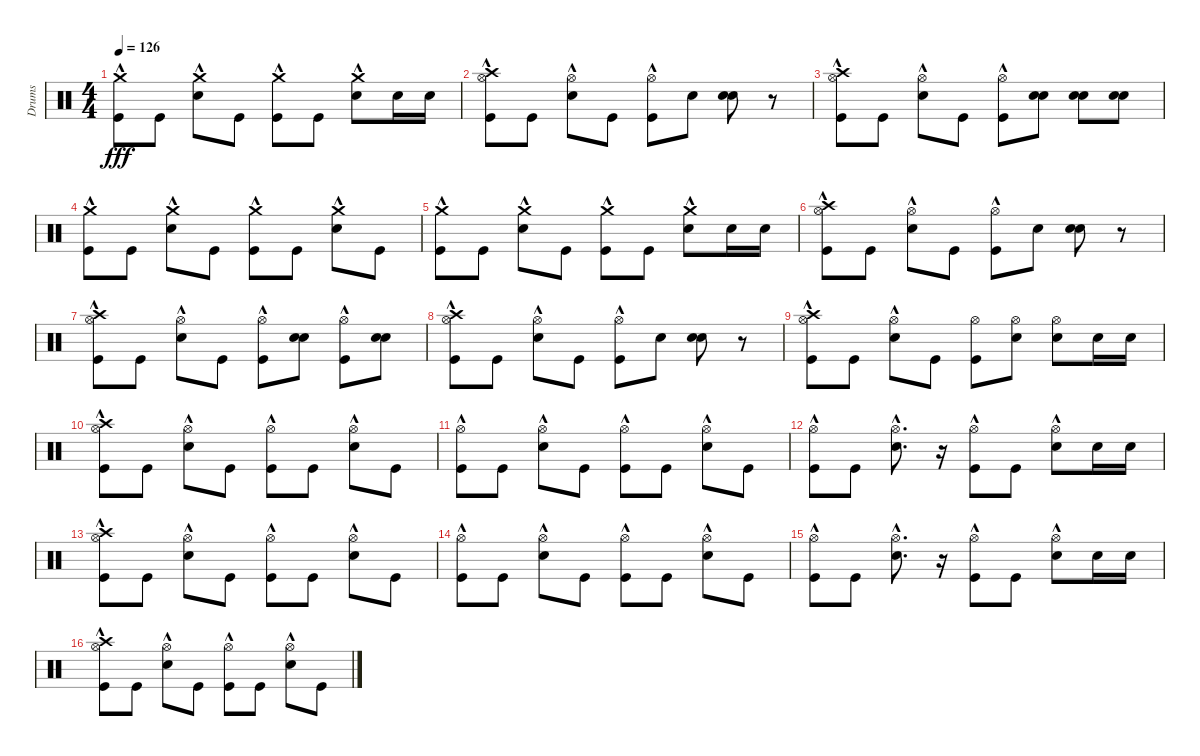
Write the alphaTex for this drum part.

\track ("Drums" "Drums") {instrument percussion}
\staff {score}
\articulation defaults
\ts (4 4)
\tempo 126
\clef neutral
\ks c
("Kick (hit)" "Crash medium (hit)"{hac}).8{dy fff} "Kick (hit)".8 ("Crash medium (hit)"{hac} "Electric Snare (hit)").8 "Kick (hit)".8 ("Kick (hit)" "Crash medium (hit)"{hac}).8 "Kick (hit)".8 ("Crash medium (hit)"{hac} "Electric Snare (hit)").8 "Electric Snare (hit)".16 "Electric Snare (hit)".16 |
("Crash high (hit)"{hac} "Kick (hit)" "Hi-Hat (open)"{hac}).8 "Kick (hit)".8 ("Electric Snare (hit)" "Hi-Hat (open)"{hac}).8 "Kick (hit)".8 ("Hi-Hat (open)"{hac} "Kick (hit)").8 "Electric Snare (hit)".8 ("Electric Snare (hit)" "Snare (hit) 2").8 r.8 |
("Hi-Hat (open)"{hac} "Kick (hit)" "Crash high (hit)"{hac}).8 "Kick (hit)".8 ("Electric Snare (hit)" "Hi-Hat (open)"{hac}).8 "Kick (hit)".8 ("Kick (hit)" "Hi-Hat (open)"{hac}).8 ("Snare (hit) 2" "Electric Snare (hit)").8 ("Snare (hit) 2" "Electric Snare (hit)").8 ("Snare (hit) 2" "Electric Snare (hit)").8 |
("Kick (hit)" "Crash medium (hit)"{hac}).8 "Kick (hit)".8 ("Electric Snare (hit)" "Crash medium (hit)"{hac}).8 "Kick (hit)".8 ("Crash medium (hit)"{hac} "Kick (hit)").8 "Kick (hit)".8 ("Electric Snare (hit)" "Crash medium (hit)"{hac}).8 "Kick (hit)".8 |
("Crash medium (hit)"{hac} "Kick (hit)").8 "Kick (hit)".8 ("Crash medium (hit)"{hac} "Electric Snare (hit)").8 "Kick (hit)".8 ("Crash medium (hit)"{hac} "Kick (hit)").8 "Kick (hit)".8 ("Electric Snare (hit)" "Crash medium (hit)"{hac}).8 "Electric Snare (hit)".16 "Electric Snare (hit)".16 |
("Hi-Hat (open)"{hac} "Kick (hit)" "Crash high (hit)"{hac}).8 "Kick (hit)".8 ("Hi-Hat (open)"{hac} "Electric Snare (hit)").8 "Kick (hit)".8 ("Kick (hit)" "Hi-Hat (open)"{hac}).8 "Electric Snare (hit)".8 ("Snare (hit) 2" "Electric Snare (hit)").8 r.8 |
("Crash high (hit)"{hac} "Kick (hit)" "Hi-Hat (open)"{hac}).8 "Kick (hit)".8 ("Electric Snare (hit)" "Hi-Hat (open)"{hac}).8 "Kick (hit)".8 ("Hi-Hat (open)"{hac} "Kick (hit)").8 ("Snare (hit) 2" "Electric Snare (hit)").8 ("Hi-Hat (open)"{hac} "Kick (hit)").8 ("Electric Snare (hit)" "Snare (hit) 2").8 |
("Hi-Hat (open)"{hac} "Kick (hit)" "Crash high (hit)"{hac}).8 "Kick (hit)".8 ("Electric Snare (hit)" "Hi-Hat (open)"{hac}).8 "Kick (hit)".8 ("Kick (hit)" "Hi-Hat (open)"{hac}).8 "Electric Snare (hit)".8 ("Snare (hit) 2" "Electric Snare (hit)").8 r.8 |
("Hi-Hat (open)"{hac} "Kick (hit)" "Crash high (hit)"{hac}).8 "Kick (hit)".8 ("Hi-Hat (open)"{hac} "Electric Snare (hit)").8 "Kick (hit)".8 ("Hi-Hat (open)" "Kick (hit)").8 ("Electric Snare (hit)" "Hi-Hat (open)").8 ("Hi-Hat (open)" "Electric Snare (hit)").8 "Electric Snare (hit)".16 "Electric Snare (hit)".16 |
("Kick (hit)" "Crash high (hit)"{hac} "Hi-Hat (open)"{hac}).8 "Kick (hit)".8 ("Hi-Hat (open)"{hac} "Electric Snare (hit)").8 "Kick (hit)".8 ("Hi-Hat (open)"{hac} "Kick (hit)").8 "Kick (hit)".8 ("Electric Snare (hit)" "Hi-Hat (open)"{hac}).8 "Kick (hit)".8 |
("Hi-Hat (open)"{hac} "Kick (hit)").8 "Kick (hit)".8 ("Hi-Hat (open)"{hac} "Electric Snare (hit)").8 "Kick (hit)".8 ("Hi-Hat (open)"{hac} "Kick (hit)").8 "Kick (hit)".8 ("Electric Snare (hit)" "Hi-Hat (open)"{hac}).8 "Kick (hit)".8 |
("Hi-Hat (open)"{hac} "Kick (hit)").8 "Kick (hit)".8 ("Hi-Hat (open)"{hac} "Electric Snare (hit)"{hac}).8{d} r.16 ("Kick (hit)" "Hi-Hat (open)"{hac}).8 "Kick (hit)".8 ("Electric Snare (hit)" "Hi-Hat (open)"{hac}).8 "Electric Snare (hit)".16 "Electric Snare (hit)".16 |
("Hi-Hat (open)"{hac} "Crash high (hit)"{hac} "Kick (hit)").8 "Kick (hit)".8 ("Hi-Hat (open)"{hac} "Electric Snare (hit)").8 "Kick (hit)".8 ("Kick (hit)" "Hi-Hat (open)"{hac}).8 "Kick (hit)".8 ("Hi-Hat (open)"{hac} "Electric Snare (hit)").8 "Kick (hit)".8 |
("Hi-Hat (open)"{hac} "Kick (hit)").8 "Kick (hit)".8 ("Electric Snare (hit)" "Hi-Hat (open)"{hac}).8 "Kick (hit)".8 ("Kick (hit)" "Hi-Hat (open)"{hac}).8 "Kick (hit)".8 ("Electric Snare (hit)" "Hi-Hat (open)"{hac}).8 "Kick (hit)".8 |
("Kick (hit)" "Hi-Hat (open)"{hac}).8 "Kick (hit)".8 ("Electric Snare (hit)"{hac} "Hi-Hat (open)"{hac}).8{d} r.16 ("Kick (hit)" "Hi-Hat (open)"{hac}).8 "Kick (hit)".8 ("Electric Snare (hit)" "Hi-Hat (open)"{hac}).8 "Electric Snare (hit)".16 "Electric Snare (hit)".16 |
("Crash high (hit)"{hac} "Kick (hit)" "Hi-Hat (open)"{hac}).8 "Kick (hit)".8 ("Hi-Hat (open)"{hac} "Electric Snare (hit)").8 "Kick (hit)".8 ("Hi-Hat (open)"{hac} "Kick (hit)").8 "Kick (hit)".8 ("Hi-Hat (open)"{hac} "Electric Snare (hit)").8 "Kick (hit)".8
